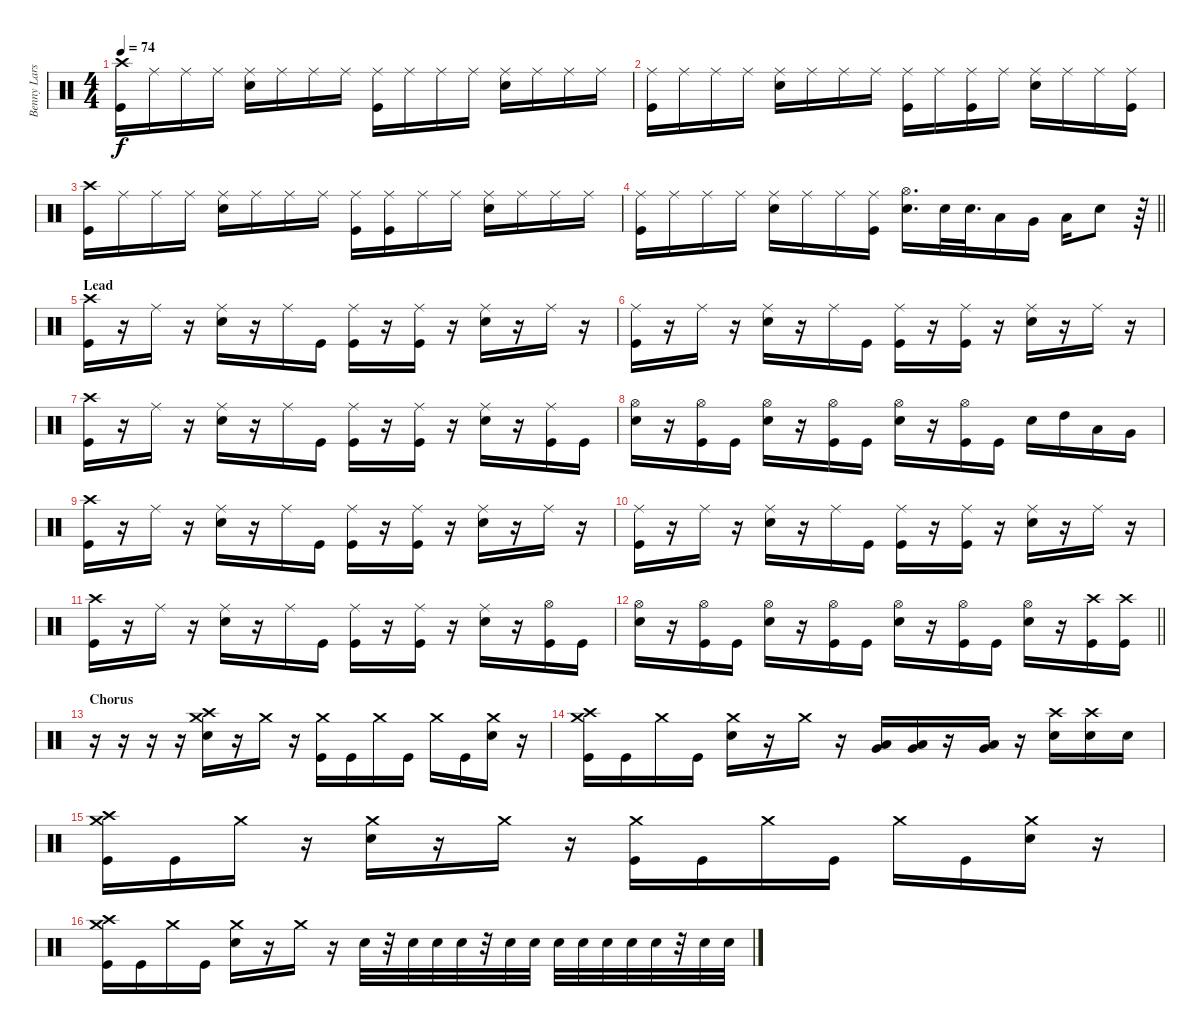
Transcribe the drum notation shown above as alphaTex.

\track ("Benny Larsson" "Benny Lars") {instrument percussion}
\staff {score}
\articulation defaults
\ts (4 4)
\tempo 74
\clef neutral
\ks c
("Crash high (hit)" "Kick (hit)").16{dy f} "Ride (middle)".16 "Ride (middle)".16 "Ride (middle)".16 ("Ride (middle)" "Snare (hit) 2").16 "Ride (middle)".16 "Ride (middle)".16 "Ride (middle)".16 ("Ride (middle)" "Kick (hit)").16 "Ride (middle)".16 "Ride (middle)".16 "Ride (middle)".16 ("Ride (middle)" "Snare (hit) 2").16 "Ride (middle)".16 "Ride (middle)".16 "Ride (middle)".16 |
("Ride (middle)" "Kick (hit)").16 "Ride (middle)".16 "Ride (middle)".16 "Ride (middle)".16 ("Ride (middle)" "Snare (hit) 2").16 "Ride (middle)".16 "Ride (middle)".16 "Ride (middle)".16 ("Ride (middle)" "Kick (hit)").16 "Ride (middle)".16 ("Ride (middle)" "Kick (hit)").16 "Ride (middle)".16 ("Ride (middle)" "Snare (hit) 2").16 "Ride (middle)".16 "Ride (middle)".16 ("Ride (middle)" "Kick (hit)").16 |
("Crash high (hit)" "Kick (hit)").16 "Ride (middle)".16 "Ride (middle)".16 "Ride (middle)".16 ("Ride (middle)" "Snare (hit) 2").16 "Ride (middle)".16 "Ride (middle)".16 "Ride (middle)".16 ("Ride (middle)" "Kick (hit)").16 ("Ride (middle)" "Kick (hit)").16 "Ride (middle)".16 "Ride (middle)".16 ("Ride (middle)" "Snare (hit) 2").16 "Ride (middle)".16 "Ride (middle)".16 "Ride (middle)".16 |
\barLineRight lightlight
("Ride (middle)" "Kick (hit)").16 "Ride (middle)".16 "Ride (middle)".16 "Ride (middle)".16 ("Ride (middle)" "Snare (hit) 2").16 "Ride (middle)".16 "Ride (middle)".16 ("Ride (middle)" "Kick (hit)").16 ("Hi-Hat (open)" "Snare (hit) 2").16{d} "Snare (hit) 2".32 "Snare (hit) 2".32{d} "Low Tom (hit)".16 "Very Low Tom (hit)".16 "Low Floor Tom (hit)".16 "Snare (hit) 2".8 r.64 |
\section ("" "Lead")
("Crash high (hit)" "Kick (hit)").16 r.16 "Ride (middle)".16 r.16 ("Ride (middle)" "Snare (hit) 2").16 r.16 "Ride (middle)".16 "Kick (hit)".16 ("Ride (middle)" "Kick (hit)").16 r.16 ("Ride (middle)" "Kick (hit)").16 r.16 ("Ride (middle)" "Snare (hit) 2").16 r.16 "Ride (middle)".16 r.16 |
("Ride (middle)" "Kick (hit)").16 r.16 "Ride (middle)".16 r.16 ("Ride (middle)" "Snare (hit) 2").16 r.16 "Ride (middle)".16 "Kick (hit)".16 ("Ride (middle)" "Kick (hit)").16 r.16 ("Ride (middle)" "Kick (hit)").16 r.16 ("Ride (middle)" "Snare (hit) 2").16 r.16 "Ride (middle)".16 r.16 |
("Crash high (hit)" "Kick (hit)").16 r.16 "Ride (middle)".16 r.16 ("Ride (middle)" "Snare (hit) 2").16 r.16 "Ride (middle)".16 "Kick (hit)".16 ("Ride (middle)" "Kick (hit)").16 r.16 ("Ride (middle)" "Kick (hit)").16 r.16 ("Ride (middle)" "Snare (hit) 2").16 r.16 ("Ride (middle)" "Kick (hit)").16 "Kick (hit)".16 |
("Hi-Hat (open)" "Snare (hit) 2").16 r.16 ("Hi-Hat (open)" "Kick (hit)").16 "Kick (hit)".16 ("Hi-Hat (open)" "Snare (hit) 2").16 r.16 ("Hi-Hat (open)" "Kick (hit)").16 "Kick (hit)".16 ("Hi-Hat (open)" "Snare (hit) 2").16 r.16 ("Hi-Hat (open)" "Kick (hit)").16 "Kick (hit)".16 "Snare (hit) 2".16 "High Tom (hit)".16 "Low Tom (hit)".16 "Very Low Tom (hit)".16 |
("Crash high (hit)" "Kick (hit)").16 r.16 "Ride (middle)".16 r.16 ("Ride (middle)" "Snare (hit) 2").16 r.16 "Ride (middle)".16 "Kick (hit)".16 ("Ride (middle)" "Kick (hit)").16 r.16 ("Ride (middle)" "Kick (hit)").16 r.16 ("Ride (middle)" "Snare (hit) 2").16 r.16 "Ride (middle)".16 r.16 |
("Ride (middle)" "Kick (hit)").16 r.16 "Ride (middle)".16 r.16 ("Ride (middle)" "Snare (hit) 2").16 r.16 "Ride (middle)".16 "Kick (hit)".16 ("Ride (middle)" "Kick (hit)").16 r.16 ("Ride (middle)" "Kick (hit)").16 r.16 ("Ride (middle)" "Snare (hit) 2").16 r.16 "Ride (middle)".16 r.16 |
("Crash high (hit)" "Kick (hit)").16 r.16 "Ride (middle)".16 r.16 ("Ride (middle)" "Snare (hit) 2").16 r.16 "Ride (middle)".16 "Kick (hit)".16 ("Ride (middle)" "Kick (hit)").16 r.16 ("Ride (middle)" "Kick (hit)").16 r.16 ("Ride (middle)" "Snare (hit) 2").16 r.16 ("Hi-Hat (open)" "Kick (hit)").16 "Kick (hit)".16 |
\barLineRight lightlight
("Hi-Hat (open)" "Snare (hit) 2").16 r.16 ("Hi-Hat (open)" "Kick (hit)").16 "Kick (hit)".16 ("Hi-Hat (open)" "Snare (hit) 2").16 r.16 ("Hi-Hat (open)" "Kick (hit)").16 "Kick (hit)".16 ("Hi-Hat (open)" "Snare (hit) 2").16 r.16 ("Hi-Hat (open)" "Kick (hit)").16 "Kick (hit)".16 ("Hi-Hat (open)" "Snare (hit) 2").16 r.16 ("Crash high (hit)" "Kick (hit)").16 ("Crash high (hit)" "Kick (hit)").16 |
\section ("" "Chorus")
r.16 r.16 r.16 r.16 ("Crash high (hit)" "Crash medium (hit)" "Snare (hit) 2").16 r.16 "Crash medium (hit)".16 r.16 ("Crash medium (hit)" "Kick (hit)").16 "Kick (hit)".16 "Crash medium (hit)".16 "Kick (hit)".16 "Crash medium (hit)".16 "Kick (hit)".16 ("Crash medium (hit)" "Snare (hit) 2").16 r.16 |
("Crash high (hit)" "Crash medium (hit)" "Kick (hit)").16 "Kick (hit)".16 "Crash medium (hit)".16 "Kick (hit)".16 ("Crash medium (hit)" "Snare (hit) 2").16 r.16 "Crash medium (hit)".16 r.16 ("Very Low Tom (hit)" "Low Floor Tom (hit)").16 ("Very Low Tom (hit)" "Low Floor Tom (hit)").16 r.16 ("Very Low Tom (hit)" "Low Floor Tom (hit)").16 r.16 ("Crash high (hit)" "Snare (hit) 2").16 ("Crash high (hit)" "Snare (hit) 2").16 "Snare (hit) 2".16 |
("Crash high (hit)" "Crash medium (hit)" "Kick (hit)").16 "Kick (hit)".16 "Crash medium (hit)".16 r.16 ("Crash medium (hit)" "Snare (hit) 2").16 r.16 "Crash medium (hit)".16 r.16 ("Crash medium (hit)" "Kick (hit)").16 "Kick (hit)".16 "Crash medium (hit)".16 "Kick (hit)".16 "Crash medium (hit)".16 "Kick (hit)".16 ("Crash medium (hit)" "Snare (hit) 2").16 r.16 |
("Crash high (hit)" "Crash medium (hit)" "Kick (hit)").16 "Kick (hit)".16 "Crash medium (hit)".16 "Kick (hit)".16 ("Crash medium (hit)" "Snare (hit) 2").16 r.16 "Crash medium (hit)".16 r.16 "Snare (hit) 2".32 r.32 "Snare (hit) 2".32 "Snare (hit) 2".32 "Snare (hit) 2".32 r.32 "Snare (hit) 2".32 "Snare (hit) 2".32 "Snare (hit) 2".32 "Snare (hit) 2".32 "Snare (hit) 2".32 "Snare (hit) 2".32 "Snare (hit) 2".32 r.32 "Snare (hit) 2".32 "Snare (hit) 2".32
